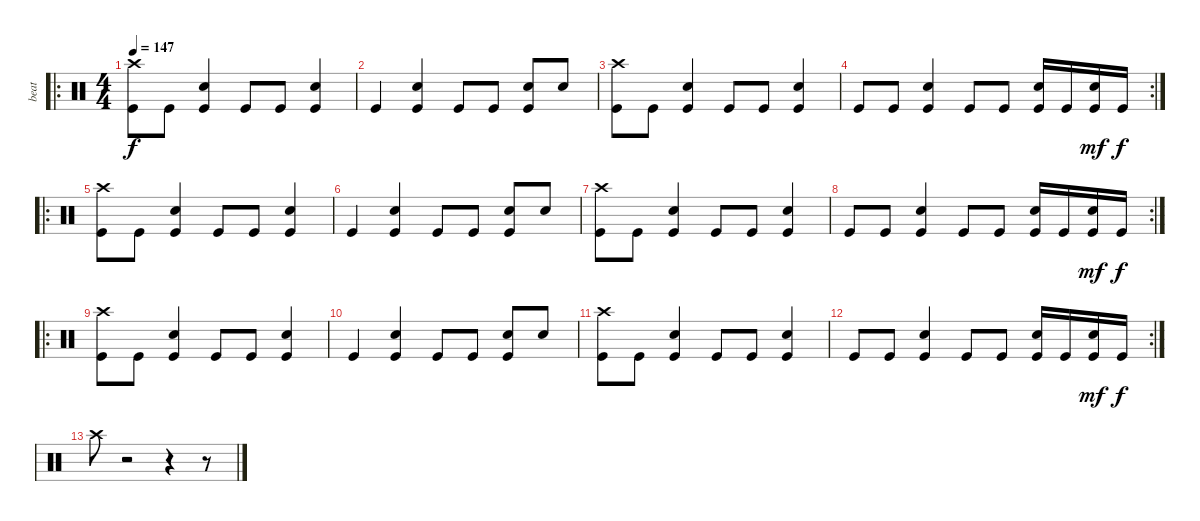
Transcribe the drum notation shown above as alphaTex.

\track ("beat" "beat") {instrument percussion}
\staff {score}
\articulation defaults
\ro
\ts (4 4)
\tempo 147
\clef neutral
\ks c
("Kick (hit)" "Crash high (hit)").8{dy f} "Kick (hit)".8 ("Kick (hit)" "Electric Snare (hit)").4 "Kick (hit)".8 "Kick (hit)".8 ("Kick (hit)" "Electric Snare (hit)").4 |
"Kick (hit)".4 ("Kick (hit)" "Electric Snare (hit)").4 "Kick (hit)".8 "Kick (hit)".8 ("Kick (hit)" "Electric Snare (hit)").8 "Electric Snare (hit)".8 |
("Kick (hit)" "Crash high (hit)").8 "Kick (hit)".8 ("Kick (hit)" "Electric Snare (hit)").4 "Kick (hit)".8 "Kick (hit)".8 ("Kick (hit)" "Electric Snare (hit)").4 |
\rc 2 "Kick (hit)".8 "Kick (hit)".8
("Kick (hit)" "Electric Snare (hit)").4 "Kick (hit)".8 "Kick (hit)".8 ("Kick (hit)" "Electric Snare (hit)").16 "Kick (hit)".16 ("Kick (hit)" "Electric Snare (hit)").16{dy mf} "Kick (hit)".16{dy f} |
\ro
("Kick (hit)" "Crash high (hit)").8 "Kick (hit)".8 ("Kick (hit)" "Electric Snare (hit)").4 "Kick (hit)".8 "Kick (hit)".8 ("Kick (hit)" "Electric Snare (hit)").4 |
"Kick (hit)".4 ("Kick (hit)" "Electric Snare (hit)").4 "Kick (hit)".8 "Kick (hit)".8 ("Kick (hit)" "Electric Snare (hit)").8 "Electric Snare (hit)".8 |
("Kick (hit)" "Crash high (hit)").8 "Kick (hit)".8 ("Kick (hit)" "Electric Snare (hit)").4 "Kick (hit)".8 "Kick (hit)".8 ("Kick (hit)" "Electric Snare (hit)").4 |
\rc 2 "Kick (hit)".8 "Kick (hit)".8
("Kick (hit)" "Electric Snare (hit)").4 "Kick (hit)".8 "Kick (hit)".8 ("Kick (hit)" "Electric Snare (hit)").16 "Kick (hit)".16 ("Kick (hit)" "Electric Snare (hit)").16{dy mf} "Kick (hit)".16{dy f} |
\ro
("Kick (hit)" "Crash high (hit)").8 "Kick (hit)".8 ("Kick (hit)" "Electric Snare (hit)").4 "Kick (hit)".8 "Kick (hit)".8 ("Kick (hit)" "Electric Snare (hit)").4 |
"Kick (hit)".4 ("Kick (hit)" "Electric Snare (hit)").4 "Kick (hit)".8 "Kick (hit)".8 ("Kick (hit)" "Electric Snare (hit)").8 "Electric Snare (hit)".8 |
("Kick (hit)" "Crash high (hit)").8 "Kick (hit)".8 ("Kick (hit)" "Electric Snare (hit)").4 "Kick (hit)".8 "Kick (hit)".8 ("Kick (hit)" "Electric Snare (hit)").4 |
\rc 2 "Kick (hit)".8 "Kick (hit)".8
("Kick (hit)" "Electric Snare (hit)").4 "Kick (hit)".8 "Kick (hit)".8 ("Kick (hit)" "Electric Snare (hit)").16 "Kick (hit)".16 ("Kick (hit)" "Electric Snare (hit)").16{dy mf} "Kick (hit)".16{dy f} |
"Crash high (hit)".8 r.2 r.4 r.8
